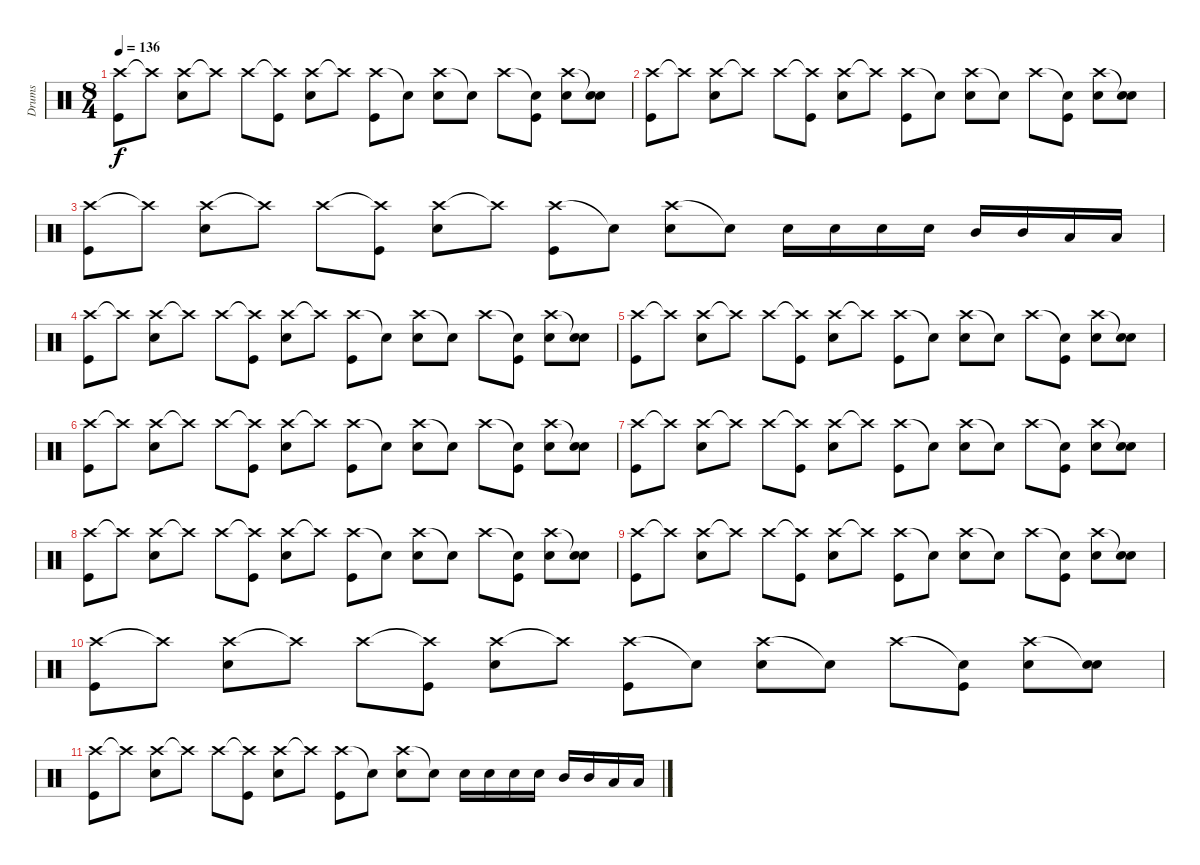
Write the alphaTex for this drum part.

\track ("Drums" "Drums") {instrument percussion}
\staff {score}
\articulation defaults
\ts (8 4)
\tempo 136
\clef neutral
\ks c
("Crash high (hit)" "Kick (hit)").8{dy f} "Crash high (hit)"{t}.8 ("Crash high (hit)" "Snare (hit) 2").8 "Crash high (hit)"{t}.8 "Crash high (hit)".8 ("Crash high (hit)"{t} "Kick (hit)").8 ("Crash high (hit)" "Snare (hit) 2").8 "Crash high (hit)"{t}.8 ("Crash high (hit)" "Kick (hit)").8 "Snare (hit)"{t}.8 ("Crash high (hit)" "Snare (hit) 2").8 "Snare (hit)"{t}.8 "Crash high (hit)".8 ("Snare (hit)"{t} "Kick (hit)").8 ("Crash high (hit)" "Snare (hit) 2").8 ("Snare (hit)"{t} "Snare (hit) 2").8 |
("Crash high (hit)" "Kick (hit)").8 "Crash high (hit)"{t}.8 ("Crash high (hit)" "Snare (hit) 2").8 "Crash high (hit)"{t}.8 "Crash high (hit)".8 ("Crash high (hit)"{t} "Kick (hit)").8 ("Crash high (hit)" "Snare (hit) 2").8 "Crash high (hit)"{t}.8 ("Crash high (hit)" "Kick (hit)").8 "Snare (hit)"{t}.8 ("Crash high (hit)" "Snare (hit) 2").8 "Snare (hit)"{t}.8 "Crash high (hit)".8 ("Snare (hit)"{t} "Kick (hit)").8 ("Crash high (hit)" "Snare (hit) 2").8 ("Snare (hit)"{t} "Snare (hit) 2").8 |
("Crash high (hit)" "Kick (hit)").8 "Crash high (hit)"{t}.8 ("Crash high (hit)" "Snare (hit) 2").8 "Crash high (hit)"{t}.8 "Crash high (hit)".8 ("Crash high (hit)"{t} "Kick (hit)").8 ("Crash high (hit)" "Snare (hit) 2").8 "Crash high (hit)"{t}.8 ("Crash high (hit)" "Kick (hit)").8 "Snare (hit)"{t}.8 ("Crash high (hit)" "Snare (hit) 2").8 "Snare (hit)"{t}.8 "Snare (hit) 2".16 "Snare (hit) 2".16 "Snare (hit) 2".16 "Snare (hit) 2".16 "Mid Tom (hit)".16 "Mid Tom (hit)".16 "Low Tom (hit)".16 "Low Floor Tom (hit)".16 |
("Crash high (hit)" "Kick (hit)").8 "Crash high (hit)"{t}.8 ("Crash high (hit)" "Snare (hit) 2").8 "Crash high (hit)"{t}.8 "Crash high (hit)".8 ("Crash high (hit)"{t} "Kick (hit)").8 ("Crash high (hit)" "Snare (hit) 2").8 "Crash high (hit)"{t}.8 ("Crash high (hit)" "Kick (hit)").8 "Snare (hit)"{t}.8 ("Crash high (hit)" "Snare (hit) 2").8 "Snare (hit)"{t}.8 "Crash high (hit)".8 ("Snare (hit)"{t} "Kick (hit)").8 ("Crash high (hit)" "Snare (hit) 2").8 ("Snare (hit)"{t} "Snare (hit) 2").8 |
("Crash high (hit)" "Kick (hit)").8 "Crash high (hit)"{t}.8 ("Crash high (hit)" "Snare (hit) 2").8 "Crash high (hit)"{t}.8 "Crash high (hit)".8 ("Crash high (hit)"{t} "Kick (hit)").8 ("Crash high (hit)" "Snare (hit) 2").8 "Crash high (hit)"{t}.8 ("Crash high (hit)" "Kick (hit)").8 "Snare (hit)"{t}.8 ("Crash high (hit)" "Snare (hit) 2").8 "Snare (hit)"{t}.8 "Crash high (hit)".8 ("Snare (hit)"{t} "Kick (hit)").8 ("Crash high (hit)" "Snare (hit) 2").8 ("Snare (hit)"{t} "Snare (hit) 2").8 |
("Crash high (hit)" "Kick (hit)").8 "Crash high (hit)"{t}.8 ("Crash high (hit)" "Snare (hit) 2").8 "Crash high (hit)"{t}.8 "Crash high (hit)".8 ("Crash high (hit)"{t} "Kick (hit)").8 ("Crash high (hit)" "Snare (hit) 2").8 "Crash high (hit)"{t}.8 ("Crash high (hit)" "Kick (hit)").8 "Snare (hit)"{t}.8 ("Crash high (hit)" "Snare (hit) 2").8 "Snare (hit)"{t}.8 "Crash high (hit)".8 ("Snare (hit)"{t} "Kick (hit)").8 ("Crash high (hit)" "Snare (hit) 2").8 ("Snare (hit)"{t} "Snare (hit) 2").8 |
("Crash high (hit)" "Kick (hit)").8 "Crash high (hit)"{t}.8 ("Crash high (hit)" "Snare (hit) 2").8 "Crash high (hit)"{t}.8 "Crash high (hit)".8 ("Crash high (hit)"{t} "Kick (hit)").8 ("Crash high (hit)" "Snare (hit) 2").8 "Crash high (hit)"{t}.8 ("Crash high (hit)" "Kick (hit)").8 "Snare (hit)"{t}.8 ("Crash high (hit)" "Snare (hit) 2").8 "Snare (hit)"{t}.8 "Crash high (hit)".8 ("Snare (hit)"{t} "Kick (hit)").8 ("Crash high (hit)" "Snare (hit) 2").8 ("Snare (hit)"{t} "Snare (hit) 2").8 |
("Crash high (hit)" "Kick (hit)").8 "Crash high (hit)"{t}.8 ("Crash high (hit)" "Snare (hit) 2").8 "Crash high (hit)"{t}.8 "Crash high (hit)".8 ("Crash high (hit)"{t} "Kick (hit)").8 ("Crash high (hit)" "Snare (hit) 2").8 "Crash high (hit)"{t}.8 ("Crash high (hit)" "Kick (hit)").8 "Snare (hit)"{t}.8 ("Crash high (hit)" "Snare (hit) 2").8 "Snare (hit)"{t}.8 "Crash high (hit)".8 ("Snare (hit)"{t} "Kick (hit)").8 ("Crash high (hit)" "Snare (hit) 2").8 ("Snare (hit)"{t} "Snare (hit) 2").8 |
("Crash high (hit)" "Kick (hit)").8 "Crash high (hit)"{t}.8 ("Crash high (hit)" "Snare (hit) 2").8 "Crash high (hit)"{t}.8 "Crash high (hit)".8 ("Crash high (hit)"{t} "Kick (hit)").8 ("Crash high (hit)" "Snare (hit) 2").8 "Crash high (hit)"{t}.8 ("Crash high (hit)" "Kick (hit)").8 "Snare (hit)"{t}.8 ("Crash high (hit)" "Snare (hit) 2").8 "Snare (hit)"{t}.8 "Crash high (hit)".8 ("Snare (hit)"{t} "Kick (hit)").8 ("Crash high (hit)" "Snare (hit) 2").8 ("Snare (hit)"{t} "Snare (hit) 2").8 |
("Crash high (hit)" "Kick (hit)").8 "Crash high (hit)"{t}.8 ("Crash high (hit)" "Snare (hit) 2").8 "Crash high (hit)"{t}.8 "Crash high (hit)".8 ("Crash high (hit)"{t} "Kick (hit)").8 ("Crash high (hit)" "Snare (hit) 2").8 "Crash high (hit)"{t}.8 ("Crash high (hit)" "Kick (hit)").8 "Snare (hit)"{t}.8 ("Crash high (hit)" "Snare (hit) 2").8 "Snare (hit)"{t}.8 "Crash high (hit)".8 ("Snare (hit)"{t} "Kick (hit)").8 ("Crash high (hit)" "Snare (hit) 2").8 ("Snare (hit)"{t} "Snare (hit) 2").8 |
("Crash high (hit)" "Kick (hit)").8 "Crash high (hit)"{t}.8 ("Crash high (hit)" "Snare (hit) 2").8 "Crash high (hit)"{t}.8 "Crash high (hit)".8 ("Crash high (hit)"{t} "Kick (hit)").8 ("Crash high (hit)" "Snare (hit) 2").8 "Crash high (hit)"{t}.8 ("Crash high (hit)" "Kick (hit)").8 "Snare (hit)"{t}.8 ("Crash high (hit)" "Snare (hit) 2").8 "Snare (hit)"{t}.8 "Snare (hit) 2".16 "Snare (hit) 2".16 "Snare (hit) 2".16 "Snare (hit) 2".16 "Mid Tom (hit)".16 "Mid Tom (hit)".16 "Low Tom (hit)".16 "Low Floor Tom (hit)".16
